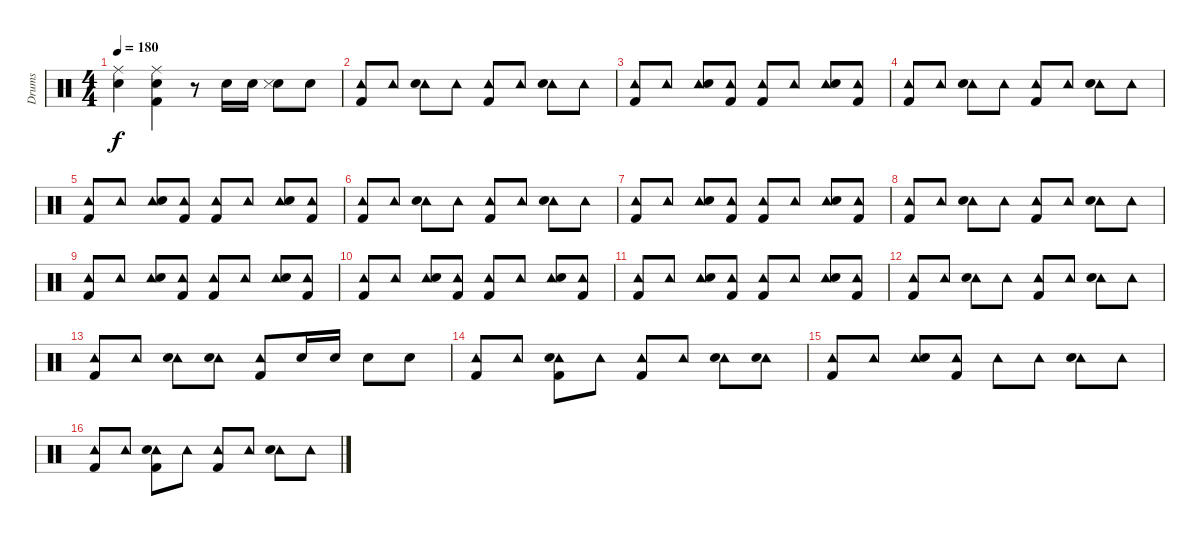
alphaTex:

\track ("Drums" "Drums") {instrument percussion}
\staff {score}
\articulation defaults
\ts (4 4)
\tempo 180
\clef neutral
\ks c
("Ride (middle)" "Snare (hit) 2").4{dy f} ("Ride (middle)" "Snare (hit) 2" "Kick (hit) 2").4 r.8 "Snare (hit) 2".16 "Snare (hit) 2".16 ("Snare (hit) 2" "Snare (side stick) 3").8 "Snare (hit) 2".8 |
("Tambourine (hit)" "Kick (hit) 2").8 "Tambourine (hit)".8 ("Tambourine (hit)" "Snare (hit) 2").8 "Tambourine (hit)".8 ("Tambourine (hit)" "Kick (hit) 2").8 "Tambourine (hit)".8 ("Tambourine (hit)" "Snare (hit) 2").8 "Tambourine (hit)".8 |
("Tambourine (hit)" "Kick (hit) 2").8 "Tambourine (hit)".8 ("Tambourine (hit)" "Snare (hit) 2").8 ("Tambourine (hit)" "Kick (hit) 2").8 ("Tambourine (hit)" "Kick (hit) 2").8 "Tambourine (hit)".8 ("Tambourine (hit)" "Snare (hit) 2").8 ("Tambourine (hit)" "Kick (hit) 2").8 |
("Tambourine (hit)" "Kick (hit) 2").8 "Tambourine (hit)".8 ("Tambourine (hit)" "Snare (hit) 2").8 "Tambourine (hit)".8 ("Tambourine (hit)" "Kick (hit) 2").8 "Tambourine (hit)".8 ("Tambourine (hit)" "Snare (hit) 2").8 "Tambourine (hit)".8 |
("Tambourine (hit)" "Kick (hit) 2").8 "Tambourine (hit)".8 ("Tambourine (hit)" "Snare (hit) 2").8 ("Tambourine (hit)" "Kick (hit) 2").8 ("Tambourine (hit)" "Kick (hit) 2").8 "Tambourine (hit)".8 ("Tambourine (hit)" "Snare (hit) 2").8 ("Tambourine (hit)" "Kick (hit) 2").8 |
("Tambourine (hit)" "Kick (hit) 2").8 "Tambourine (hit)".8 ("Tambourine (hit)" "Snare (hit) 2").8 "Tambourine (hit)".8 ("Tambourine (hit)" "Kick (hit) 2").8 "Tambourine (hit)".8 ("Tambourine (hit)" "Snare (hit) 2").8 "Tambourine (hit)".8 |
("Tambourine (hit)" "Kick (hit) 2").8 "Tambourine (hit)".8 ("Tambourine (hit)" "Snare (hit) 2").8 ("Tambourine (hit)" "Kick (hit) 2").8 ("Tambourine (hit)" "Kick (hit) 2").8 "Tambourine (hit)".8 ("Tambourine (hit)" "Snare (hit) 2").8 ("Tambourine (hit)" "Kick (hit) 2").8 |
("Tambourine (hit)" "Kick (hit) 2").8 "Tambourine (hit)".8 ("Tambourine (hit)" "Snare (hit) 2").8 "Tambourine (hit)".8 ("Tambourine (hit)" "Kick (hit) 2").8 "Tambourine (hit)".8 ("Tambourine (hit)" "Snare (hit) 2").8 "Tambourine (hit)".8 |
("Tambourine (hit)" "Kick (hit) 2").8 "Tambourine (hit)".8 ("Tambourine (hit)" "Snare (hit) 2").8 ("Tambourine (hit)" "Kick (hit) 2").8 ("Tambourine (hit)" "Kick (hit) 2").8 "Tambourine (hit)".8 ("Tambourine (hit)" "Snare (hit) 2").8 ("Tambourine (hit)" "Kick (hit) 2").8 |
("Tambourine (hit)" "Kick (hit) 2").8 "Tambourine (hit)".8 ("Tambourine (hit)" "Snare (hit) 2").8 ("Tambourine (hit)" "Kick (hit) 2").8 ("Tambourine (hit)" "Kick (hit) 2").8 "Tambourine (hit)".8 ("Tambourine (hit)" "Snare (hit) 2").8 ("Tambourine (hit)" "Kick (hit) 2").8 |
("Tambourine (hit)" "Kick (hit) 2").8 "Tambourine (hit)".8 ("Tambourine (hit)" "Snare (hit) 2").8 ("Tambourine (hit)" "Kick (hit) 2").8 ("Tambourine (hit)" "Kick (hit) 2").8 "Tambourine (hit)".8 ("Tambourine (hit)" "Snare (hit) 2").8 ("Tambourine (hit)" "Kick (hit) 2").8 |
("Tambourine (hit)" "Kick (hit) 2").8 "Tambourine (hit)".8 ("Tambourine (hit)" "Snare (hit) 2").8 "Tambourine (hit)".8 ("Tambourine (hit)" "Kick (hit) 2").8 "Tambourine (hit)".8 ("Tambourine (hit)" "Snare (hit) 2").8 "Tambourine (hit)".8 |
("Tambourine (hit)" "Kick (hit) 2").8 "Tambourine (hit)".8 ("Tambourine (hit)" "Snare (hit) 2").8 ("Tambourine (hit)" "Snare (hit) 2").8 ("Tambourine (hit)" "Kick (hit) 2").8 "Snare (hit) 2".16 "Snare (hit) 2".16 "Snare (hit) 2".8 "Snare (hit) 2".8 |
("Tambourine (hit)" "Kick (hit) 2").8 "Tambourine (hit)".8 ("Tambourine (hit)" "Snare (hit) 2" "Kick (hit) 2").8 "Tambourine (hit)".8 ("Tambourine (hit)" "Kick (hit) 2").8 "Tambourine (hit)".8 ("Tambourine (hit)" "Snare (hit) 2").8 ("Tambourine (hit)" "Snare (hit) 2").8 |
("Tambourine (hit)" "Kick (hit) 2").8 "Tambourine (hit)".8 ("Tambourine (hit)" "Snare (hit) 2").8 ("Tambourine (hit)" "Kick (hit) 2").8 "Tambourine (hit)".8 "Tambourine (hit)".8 ("Tambourine (hit)" "Snare (hit) 2").8 "Tambourine (hit)".8 |
("Tambourine (hit)" "Kick (hit) 2").8 "Tambourine (hit)".8 ("Tambourine (hit)" "Snare (hit) 2" "Kick (hit) 2").8 "Tambourine (hit)".8 ("Tambourine (hit)" "Kick (hit) 2").8 "Tambourine (hit)".8 ("Tambourine (hit)" "Snare (hit) 2").8 "Tambourine (hit)".8
